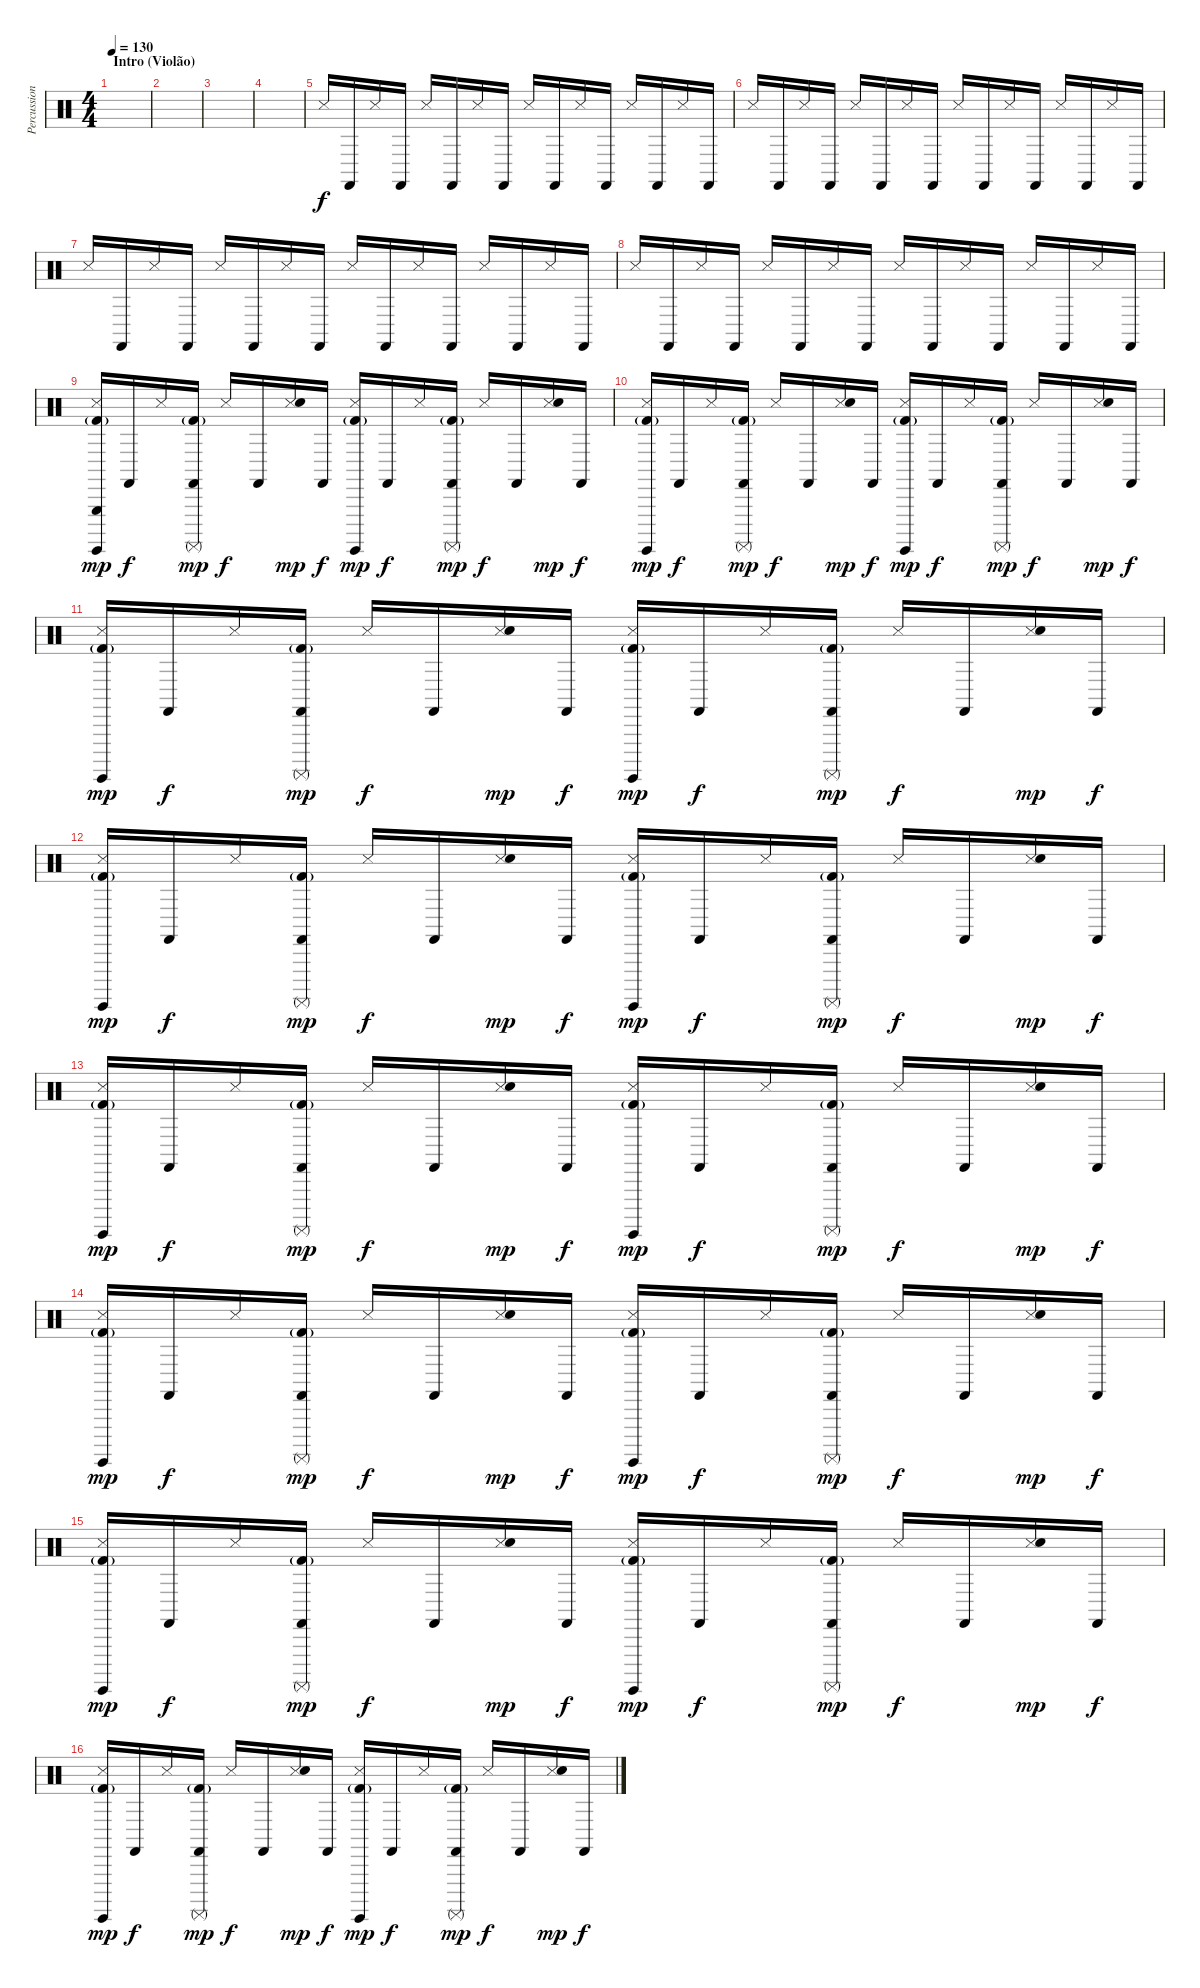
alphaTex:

\track ("Percussion" "Percussion") {instrument percussion}
\staff {score}
\articulation defaults
\ts (4 4)
\section ("" "Intro (Violão)")
\tempo 130
\clef neutral
\ks c
|
|
|
|
"Snare (side stick) 3".16 "Castanets (hit)".16 "Snare (side stick) 3".16{volume 11} "Castanets (hit)".16 "Snare (side stick) 3".16 "Castanets (hit)".16 "Snare (side stick) 3".16 "Castanets (hit)".16 "Snare (side stick) 3".16 "Castanets (hit)".16 "Snare (side stick) 3".16 "Castanets (hit)".16 "Snare (side stick) 3".16 "Castanets (hit)".16 "Snare (side stick) 3".16 "Castanets (hit)".16 |
"Snare (side stick) 3".16 "Castanets (hit)".16 "Snare (side stick) 3".16 "Castanets (hit)".16 "Snare (side stick) 3".16 "Castanets (hit)".16 "Snare (side stick) 3".16 "Castanets (hit)".16 "Snare (side stick) 3".16 "Castanets (hit)".16 "Snare (side stick) 3".16 "Castanets (hit)".16 "Snare (side stick) 3".16 "Castanets (hit)".16 "Snare (side stick) 3".16 "Castanets (hit)".16 |
"Snare (side stick) 3".16 "Castanets (hit)".16 "Snare (side stick) 3".16 "Castanets (hit)".16 "Snare (side stick) 3".16 "Castanets (hit)".16 "Snare (side stick) 3".16 "Castanets (hit)".16 "Snare (side stick) 3".16 "Castanets (hit)".16 "Snare (side stick) 3".16 "Castanets (hit)".16 "Snare (side stick) 3".16 "Castanets (hit)".16 "Snare (side stick) 3".16 "Castanets (hit)".16 |
"Snare (side stick) 3".16 "Castanets (hit)".16 "Snare (side stick) 3".16 "Castanets (hit)".16 "Snare (side stick) 3".16 "Castanets (hit)".16 "Snare (side stick) 3".16 "Castanets (hit)".16 "Snare (side stick) 3".16 "Castanets (hit)".16 "Snare (side stick) 3".16 "Castanets (hit)".16 "Snare (side stick) 3".16 "Castanets (hit)".16 "Snare (side stick) 3".16 "Castanets (hit)".16 |
("Snare (side stick) 3" "Surdo (hit)" "Triangle (hit)" "Kick (hit) 2"{g}).16{dy mp} "Castanets (hit)".16{dy f} "Snare (side stick) 3".16 ("Castanets (hit)" "Surdo (mute)" "Kick (hit) 2"{g}).16{dy mp} "Snare (side stick) 3".16{dy f} "Castanets (hit)".16 ("Snare (side stick) 3" "Electric Snare (hit)").16{dy mp} "Castanets (hit)".16{dy f} ("Snare (side stick) 3" "Surdo (hit)" "Kick (hit) 2"{g}).16{dy mp} "Castanets (hit)".16{dy f} "Snare (side stick) 3".16 ("Castanets (hit)" "Surdo (mute)" "Kick (hit) 2"{g}).16{dy mp} "Snare (side stick) 3".16{dy f} "Castanets (hit)".16 ("Snare (side stick) 3" "Electric Snare (hit)").16{dy mp} "Castanets (hit)".16{dy f} |
("Snare (side stick) 3" "Surdo (hit)" "Kick (hit) 2"{g}).16{dy mp} "Castanets (hit)".16{dy f} "Snare (side stick) 3".16 ("Castanets (hit)" "Surdo (mute)" "Kick (hit) 2"{g}).16{dy mp} "Snare (side stick) 3".16{dy f} "Castanets (hit)".16 ("Snare (side stick) 3" "Electric Snare (hit)").16{dy mp} "Castanets (hit)".16{dy f} ("Snare (side stick) 3" "Surdo (hit)" "Kick (hit) 2"{g}).16{dy mp} "Castanets (hit)".16{dy f} "Snare (side stick) 3".16 ("Castanets (hit)" "Surdo (mute)" "Kick (hit) 2"{g}).16{dy mp} "Snare (side stick) 3".16{dy f} "Castanets (hit)".16 ("Snare (side stick) 3" "Electric Snare (hit)").16{dy mp} "Castanets (hit)".16{dy f} |
("Snare (side stick) 3" "Surdo (hit)" "Kick (hit) 2"{g}).16{dy mp} "Castanets (hit)".16{dy f} "Snare (side stick) 3".16 ("Castanets (hit)" "Surdo (mute)" "Kick (hit) 2"{g}).16{dy mp} "Snare (side stick) 3".16{dy f} "Castanets (hit)".16 ("Snare (side stick) 3" "Electric Snare (hit)").16{dy mp} "Castanets (hit)".16{dy f} ("Snare (side stick) 3" "Surdo (hit)" "Kick (hit) 2"{g}).16{dy mp} "Castanets (hit)".16{dy f} "Snare (side stick) 3".16 ("Castanets (hit)" "Surdo (mute)" "Kick (hit) 2"{g}).16{dy mp} "Snare (side stick) 3".16{dy f} "Castanets (hit)".16 ("Snare (side stick) 3" "Electric Snare (hit)").16{dy mp} "Castanets (hit)".16{dy f} |
("Snare (side stick) 3" "Surdo (hit)" "Kick (hit) 2"{g}).16{dy mp} "Castanets (hit)".16{dy f} "Snare (side stick) 3".16 ("Castanets (hit)" "Surdo (mute)" "Kick (hit) 2"{g}).16{dy mp} "Snare (side stick) 3".16{dy f} "Castanets (hit)".16 ("Snare (side stick) 3" "Electric Snare (hit)").16{dy mp} "Castanets (hit)".16{dy f} ("Snare (side stick) 3" "Surdo (hit)" "Kick (hit) 2"{g}).16{dy mp} "Castanets (hit)".16{dy f} "Snare (side stick) 3".16 ("Castanets (hit)" "Surdo (mute)" "Kick (hit) 2"{g}).16{dy mp} "Snare (side stick) 3".16{dy f} "Castanets (hit)".16 ("Snare (side stick) 3" "Electric Snare (hit)").16{dy mp} "Castanets (hit)".16{dy f} |
("Snare (side stick) 3" "Surdo (hit)" "Kick (hit) 2"{g}).16{dy mp} "Castanets (hit)".16{dy f} "Snare (side stick) 3".16 ("Castanets (hit)" "Surdo (mute)" "Kick (hit) 2"{g}).16{dy mp} "Snare (side stick) 3".16{dy f} "Castanets (hit)".16 ("Snare (side stick) 3" "Electric Snare (hit)").16{dy mp} "Castanets (hit)".16{dy f} ("Snare (side stick) 3" "Surdo (hit)" "Kick (hit) 2"{g}).16{dy mp} "Castanets (hit)".16{dy f} "Snare (side stick) 3".16 ("Castanets (hit)" "Surdo (mute)" "Kick (hit) 2"{g}).16{dy mp} "Snare (side stick) 3".16{dy f} "Castanets (hit)".16 ("Snare (side stick) 3" "Electric Snare (hit)").16{dy mp} "Castanets (hit)".16{dy f} |
("Snare (side stick) 3" "Surdo (hit)" "Kick (hit) 2"{g}).16{dy mp} "Castanets (hit)".16{dy f} "Snare (side stick) 3".16 ("Castanets (hit)" "Surdo (mute)" "Kick (hit) 2"{g}).16{dy mp} "Snare (side stick) 3".16{dy f} "Castanets (hit)".16 ("Snare (side stick) 3" "Electric Snare (hit)").16{dy mp} "Castanets (hit)".16{dy f} ("Snare (side stick) 3" "Surdo (hit)" "Kick (hit) 2"{g}).16{dy mp} "Castanets (hit)".16{dy f} "Snare (side stick) 3".16 ("Castanets (hit)" "Surdo (mute)" "Kick (hit) 2"{g}).16{dy mp} "Snare (side stick) 3".16{dy f} "Castanets (hit)".16 ("Snare (side stick) 3" "Electric Snare (hit)").16{dy mp} "Castanets (hit)".16{dy f} |
("Snare (side stick) 3" "Surdo (hit)" "Kick (hit) 2"{g}).16{dy mp} "Castanets (hit)".16{dy f} "Snare (side stick) 3".16 ("Castanets (hit)" "Surdo (mute)" "Kick (hit) 2"{g}).16{dy mp} "Snare (side stick) 3".16{dy f} "Castanets (hit)".16 ("Snare (side stick) 3" "Electric Snare (hit)").16{dy mp} "Castanets (hit)".16{dy f} ("Snare (side stick) 3" "Surdo (hit)" "Kick (hit) 2"{g}).16{dy mp} "Castanets (hit)".16{dy f} "Snare (side stick) 3".16 ("Castanets (hit)" "Surdo (mute)" "Kick (hit) 2"{g}).16{dy mp} "Snare (side stick) 3".16{dy f} "Castanets (hit)".16 ("Snare (side stick) 3" "Electric Snare (hit)").16{dy mp} "Castanets (hit)".16{dy f} |
("Snare (side stick) 3" "Surdo (hit)" "Kick (hit) 2"{g}).16{dy mp} "Castanets (hit)".16{dy f} "Snare (side stick) 3".16 ("Castanets (hit)" "Surdo (mute)" "Kick (hit) 2"{g}).16{dy mp} "Snare (side stick) 3".16{dy f} "Castanets (hit)".16 ("Snare (side stick) 3" "Electric Snare (hit)").16{dy mp} "Castanets (hit)".16{dy f} ("Snare (side stick) 3" "Surdo (hit)" "Kick (hit) 2"{g}).16{dy mp} "Castanets (hit)".16{dy f} "Snare (side stick) 3".16 ("Castanets (hit)" "Surdo (mute)" "Kick (hit) 2"{g}).16{dy mp} "Snare (side stick) 3".16{dy f} "Castanets (hit)".16 ("Snare (side stick) 3" "Electric Snare (hit)").16{dy mp} "Castanets (hit)".16{dy f}
